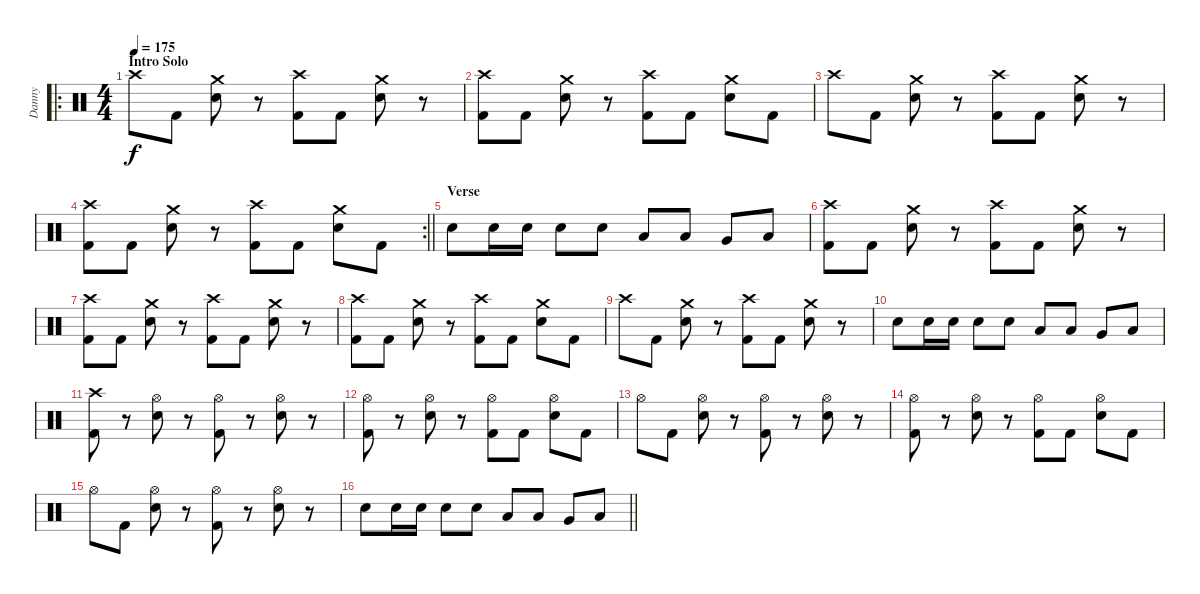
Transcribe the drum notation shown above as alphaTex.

\track ("Danny" "Danny") {instrument percussion}
\staff {score}
\articulation defaults
\ro
\ts (4 4)
\section ("" "Intro Solo")
\tempo 175
\clef neutral
\ks c "Crash high (hit)".8{dy f} "Kick (hit) 2".8
("Crash medium (hit)" "Electric Snare (hit)").8 r.8 ("Crash high (hit)" "Kick (hit) 2").8 "Kick (hit) 2".8 ("Crash medium (hit)" "Electric Snare (hit)").8 r.8 |
("Crash high (hit)" "Kick (hit) 2").8 "Kick (hit) 2".8 ("Crash medium (hit)" "Electric Snare (hit)").8 r.8 ("Crash high (hit)" "Kick (hit) 2").8 "Kick (hit) 2".8 ("Crash medium (hit)" "Electric Snare (hit)").8 "Kick (hit) 2".8 |
"Crash high (hit)".8 "Kick (hit) 2".8 ("Crash medium (hit)" "Electric Snare (hit)").8 r.8 ("Crash high (hit)" "Kick (hit) 2").8 "Kick (hit) 2".8 ("Crash medium (hit)" "Electric Snare (hit)").8 r.8 |
\rc 2
\barLineRight lightlight
("Crash high (hit)" "Kick (hit) 2").8 "Kick (hit) 2".8 ("Crash medium (hit)" "Electric Snare (hit)").8 r.8 ("Crash high (hit)" "Kick (hit) 2").8 "Kick (hit) 2".8 ("Crash medium (hit)" "Electric Snare (hit)").8 "Kick (hit) 2".8 |
\section ("" "Verse")
"Electric Snare (hit)".8 "Electric Snare (hit)".16 "Electric Snare (hit)".16 "Electric Snare (hit)".8 "Electric Snare (hit)".8 "Low Tom (hit)".8 "Low Tom (hit)".8 "Very Low Tom (hit)".8 "Low Floor Tom (hit)".8 |
("Crash high (hit)" "Kick (hit) 2").8 "Kick (hit) 2".8 ("Crash medium (hit)" "Electric Snare (hit)").8 r.8 ("Crash high (hit)" "Kick (hit) 2").8 "Kick (hit) 2".8 ("Crash medium (hit)" "Electric Snare (hit)").8 r.8 |
("Crash high (hit)" "Kick (hit) 2").8 "Kick (hit) 2".8 ("Crash medium (hit)" "Electric Snare (hit)").8 r.8 ("Crash high (hit)" "Kick (hit) 2").8 "Kick (hit) 2".8 ("Crash medium (hit)" "Electric Snare (hit)").8 r.8 |
("Crash high (hit)" "Kick (hit) 2").8 "Kick (hit) 2".8 ("Crash medium (hit)" "Electric Snare (hit)").8 r.8 ("Crash high (hit)" "Kick (hit) 2").8 "Kick (hit) 2".8 ("Crash medium (hit)" "Electric Snare (hit)").8 "Kick (hit) 2".8 |
"Crash high (hit)".8 "Kick (hit) 2".8 ("Crash medium (hit)" "Electric Snare (hit)").8 r.8 ("Crash high (hit)" "Kick (hit) 2").8 "Kick (hit) 2".8 ("Crash medium (hit)" "Electric Snare (hit)").8 r.8 |
"Electric Snare (hit)".8 "Electric Snare (hit)".16 "Electric Snare (hit)".16 "Electric Snare (hit)".8 "Electric Snare (hit)".8 "Low Tom (hit)".8 "Low Tom (hit)".8 "Very Low Tom (hit)".8 "Low Floor Tom (hit)".8 |
("Crash high (hit)" "Kick (hit) 2").8 r.8 ("Hi-Hat (open)" "Electric Snare (hit)").8 r.8 ("Hi-Hat (open)" "Kick (hit) 2").8 r.8 ("Hi-Hat (open)" "Electric Snare (hit)").8 r.8 |
("Hi-Hat (open)" "Kick (hit) 2").8 r.8 ("Hi-Hat (open)" "Electric Snare (hit)").8 r.8 ("Hi-Hat (open)" "Kick (hit) 2").8 "Kick (hit) 2".8 ("Hi-Hat (open)" "Electric Snare (hit)").8 "Kick (hit) 2".8 |
"Hi-Hat (open)".8 "Kick (hit) 2".8 ("Hi-Hat (open)" "Electric Snare (hit)").8 r.8 ("Hi-Hat (open)" "Kick (hit) 2").8 r.8 ("Hi-Hat (open)" "Electric Snare (hit)").8 r.8 |
("Hi-Hat (open)" "Kick (hit) 2").8 r.8 ("Hi-Hat (open)" "Electric Snare (hit)").8 r.8 ("Hi-Hat (open)" "Kick (hit) 2").8 "Kick (hit) 2".8 ("Hi-Hat (open)" "Electric Snare (hit)").8 "Kick (hit) 2".8 |
"Hi-Hat (open)".8 "Kick (hit) 2".8 ("Hi-Hat (open)" "Electric Snare (hit)").8 r.8 ("Hi-Hat (open)" "Kick (hit) 2").8 r.8 ("Hi-Hat (open)" "Electric Snare (hit)").8 r.8 |
\barLineRight lightlight "Electric Snare (hit)".8 "Electric Snare (hit)".16 "Electric Snare (hit)".16 "Electric Snare (hit)".8 "Electric Snare (hit)".8 "Low Tom (hit)".8 "Low Tom (hit)".8 "Very Low Tom (hit)".8 "Low Floor Tom (hit)".8
